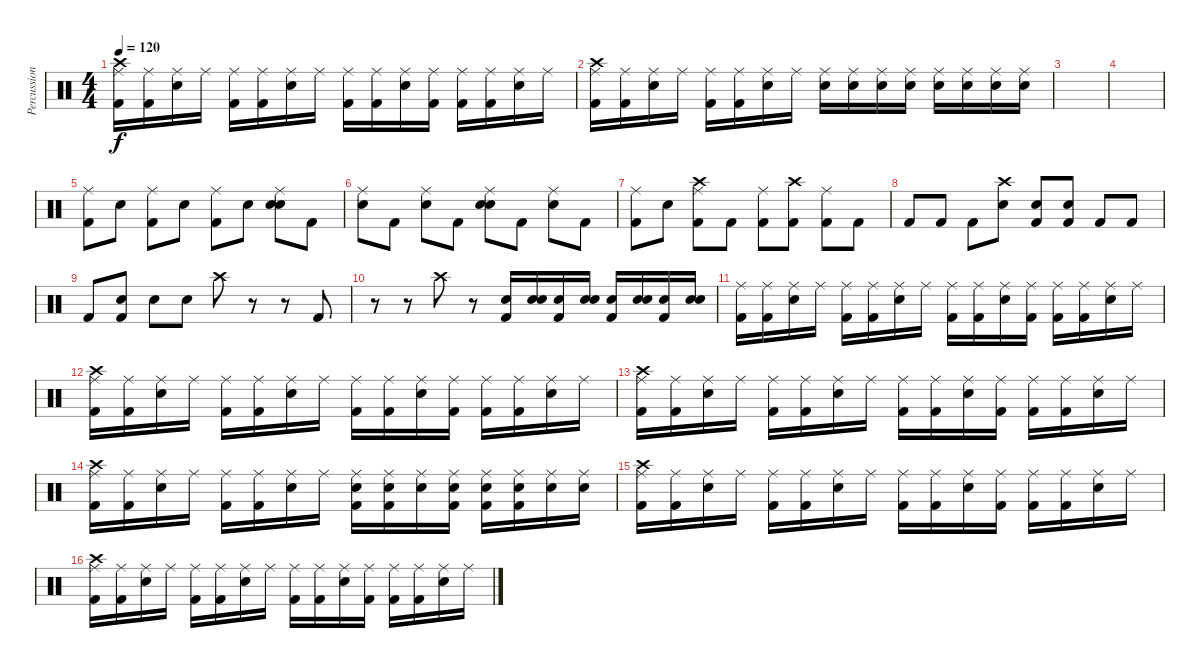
\track ("Percussions" "Percussion") {instrument percussion}
\staff {score}
\articulation defaults
\ts (4 4)
\tempo 120
\clef neutral
\ks c
("Ride (middle)" "Crash high (hit)" "Kick (hit) 2").16{dy f} ("Ride (middle)" "Kick (hit) 2").16 ("Ride (middle)" "Electric Snare (hit)").16 "Ride (middle)".16 ("Ride (middle)" "Kick (hit) 2").16 ("Ride (middle)" "Kick (hit) 2").16 ("Ride (middle)" "Electric Snare (hit)").16 "Ride (middle)".16 ("Ride (middle)" "Kick (hit) 2").16 ("Ride (middle)" "Kick (hit) 2").16 ("Ride (middle)" "Electric Snare (hit)").16 ("Ride (middle)" "Kick (hit) 2").16 ("Ride (middle)" "Kick (hit) 2").16 ("Ride (middle)" "Kick (hit) 2").16 ("Ride (middle)" "Electric Snare (hit)").16 "Ride (middle)".16 |
("Ride (middle)" "Crash high (hit)" "Kick (hit) 2").16 ("Ride (middle)" "Kick (hit) 2").16 ("Ride (middle)" "Electric Snare (hit)").16 "Ride (middle)".16 ("Ride (middle)" "Kick (hit) 2").16 ("Ride (middle)" "Kick (hit) 2").16 ("Ride (middle)" "Electric Snare (hit)").16 "Ride (middle)".16 ("Ride (middle)" "Electric Snare (hit)").16 ("Ride (middle)" "Electric Snare (hit)").16 ("Ride (middle)" "Electric Snare (hit)").16 ("Ride (middle)" "Electric Snare (hit)").16 ("Ride (middle)" "Electric Snare (hit)").16 ("Ride (middle)" "Electric Snare (hit)").16 ("Ride (middle)" "Electric Snare (hit)").16 ("Ride (middle)" "Electric Snare (hit)").16 |
|
|
("Ride (middle)" "Kick (hit) 2").8 "Electric Snare (hit)".8 ("Ride (middle)" "Kick (hit) 2").8 "Electric Snare (hit)".8 ("Ride (middle)" "Kick (hit) 2").8 "Electric Snare (hit)".8 ("Ride (middle)" "Electric Snare (hit)" "Snare (hit) 2").8 "Kick (hit) 2".8 |
("Ride (middle)" "Electric Snare (hit)").8 "Kick (hit) 2".8 ("Ride (middle)" "Electric Snare (hit)").8 "Kick (hit) 2".8 ("Ride (middle)" "Electric Snare (hit)" "Snare (hit) 2").8 "Kick (hit) 2".8 ("Ride (middle)" "Electric Snare (hit)").8 "Kick (hit) 2".8 |
("Ride (middle)" "Kick (hit) 2").8 "Snare (hit) 2".8 ("Ride (middle)" "Crash high (hit)" "Kick (hit) 2").8 "Kick (hit) 2".8 ("Ride (middle)" "Kick (hit) 2").8 ("Crash high (hit)" "Kick (hit) 2").8 ("Ride (middle)" "Kick (hit) 2").8 "Kick (hit) 2".8 |
"Kick (hit) 2".8 "Kick (hit) 2".8 "Kick (hit) 2".8 ("Crash high (hit)" "Electric Snare (hit)").8 ("Snare (hit) 2" "Kick (hit) 2").8 ("Snare (hit) 2" "Kick (hit) 2").8 "Kick (hit) 2".8 "Kick (hit) 2".8 |
"Kick (hit) 2".8 ("Snare (hit) 2" "Kick (hit) 2").8 "Electric Snare (hit)".8 "Electric Snare (hit)".8 "Crash high (hit)".8 r.8 r.8 "Kick (hit) 2".8 |
r.8 r.8 "Crash high (hit)".8 r.8 ("Kick (hit) 2" "Electric Snare (hit)").16 ("Snare (hit) 2" "Electric Snare (hit)").16 ("Kick (hit) 2" "Electric Snare (hit)").16 ("Snare (hit) 2" "Electric Snare (hit)").16 ("Kick (hit) 2" "Electric Snare (hit)").16 ("Snare (hit) 2" "Electric Snare (hit)").16 ("Kick (hit) 2" "Electric Snare (hit)").16 ("Snare (hit) 2" "Electric Snare (hit)").16 |
("Ride (middle)" "Kick (hit) 2").16 ("Ride (middle)" "Kick (hit) 2").16 ("Ride (middle)" "Electric Snare (hit)").16 "Ride (middle)".16 ("Ride (middle)" "Kick (hit) 2").16 ("Ride (middle)" "Kick (hit) 2").16 ("Ride (middle)" "Electric Snare (hit)").16 "Ride (middle)".16 ("Ride (middle)" "Kick (hit) 2").16 ("Ride (middle)" "Kick (hit) 2").16 ("Ride (middle)" "Electric Snare (hit)").16 ("Ride (middle)" "Kick (hit) 2").16 ("Ride (middle)" "Kick (hit) 2").16 ("Ride (middle)" "Kick (hit) 2").16 ("Ride (middle)" "Electric Snare (hit)").16 "Ride (middle)".16 |
("Ride (middle)" "Crash high (hit)" "Kick (hit) 2").16 ("Ride (middle)" "Kick (hit) 2").16 ("Ride (middle)" "Electric Snare (hit)").16 "Ride (middle)".16 ("Ride (middle)" "Kick (hit) 2").16 ("Ride (middle)" "Kick (hit) 2").16 ("Ride (middle)" "Electric Snare (hit)").16 "Ride (middle)".16 ("Ride (middle)" "Kick (hit) 2").16 ("Ride (middle)" "Kick (hit) 2").16 ("Ride (middle)" "Electric Snare (hit)").16 ("Ride (middle)" "Kick (hit) 2").16 ("Ride (middle)" "Kick (hit) 2").16 ("Ride (middle)" "Kick (hit) 2").16 ("Ride (middle)" "Electric Snare (hit)").16 "Ride (middle)".16 |
("Ride (middle)" "Crash high (hit)" "Kick (hit) 2").16 ("Ride (middle)" "Kick (hit) 2").16 ("Ride (middle)" "Electric Snare (hit)").16 "Ride (middle)".16 ("Ride (middle)" "Kick (hit) 2").16 ("Ride (middle)" "Kick (hit) 2").16 ("Ride (middle)" "Electric Snare (hit)").16 "Ride (middle)".16 ("Ride (middle)" "Kick (hit) 2").16 ("Ride (middle)" "Kick (hit) 2").16 ("Ride (middle)" "Electric Snare (hit)").16 ("Ride (middle)" "Kick (hit) 2").16 ("Ride (middle)" "Kick (hit) 2").16 ("Ride (middle)" "Kick (hit) 2").16 ("Ride (middle)" "Electric Snare (hit)").16 "Ride (middle)".16 |
("Ride (middle)" "Crash high (hit)" "Kick (hit) 2").16 ("Ride (middle)" "Kick (hit) 2").16 ("Ride (middle)" "Electric Snare (hit)").16 "Ride (middle)".16 ("Ride (middle)" "Kick (hit) 2").16 ("Ride (middle)" "Kick (hit) 2").16 ("Ride (middle)" "Electric Snare (hit)").16 "Ride (middle)".16 ("Ride (middle)" "Electric Snare (hit)" "Kick (hit) 2").16 ("Ride (middle)" "Electric Snare (hit)" "Kick (hit) 2").16 ("Ride (middle)" "Electric Snare (hit)").16 ("Ride (middle)" "Electric Snare (hit)" "Kick (hit) 2").16 ("Ride (middle)" "Electric Snare (hit)" "Kick (hit) 2").16 ("Ride (middle)" "Electric Snare (hit)" "Kick (hit) 2").16 ("Ride (middle)" "Electric Snare (hit)").16 ("Ride (middle)" "Electric Snare (hit)").16 |
("Ride (middle)" "Crash high (hit)" "Kick (hit) 2").16 ("Ride (middle)" "Kick (hit) 2").16 ("Ride (middle)" "Electric Snare (hit)").16 "Ride (middle)".16 ("Ride (middle)" "Kick (hit) 2").16 ("Ride (middle)" "Kick (hit) 2").16 ("Ride (middle)" "Electric Snare (hit)").16 "Ride (middle)".16 ("Ride (middle)" "Kick (hit) 2").16 ("Ride (middle)" "Kick (hit) 2").16 ("Ride (middle)" "Electric Snare (hit)").16 ("Ride (middle)" "Kick (hit) 2").16 ("Ride (middle)" "Kick (hit) 2").16 ("Ride (middle)" "Kick (hit) 2").16 ("Ride (middle)" "Electric Snare (hit)").16 "Ride (middle)".16 |
("Ride (middle)" "Crash high (hit)" "Kick (hit) 2").16 ("Ride (middle)" "Kick (hit) 2").16 ("Ride (middle)" "Electric Snare (hit)").16 "Ride (middle)".16 ("Ride (middle)" "Kick (hit) 2").16 ("Ride (middle)" "Kick (hit) 2").16 ("Ride (middle)" "Electric Snare (hit)").16 "Ride (middle)".16 ("Ride (middle)" "Kick (hit) 2").16 ("Ride (middle)" "Kick (hit) 2").16 ("Ride (middle)" "Electric Snare (hit)").16 ("Ride (middle)" "Kick (hit) 2").16 ("Ride (middle)" "Kick (hit) 2").16 ("Ride (middle)" "Kick (hit) 2").16 ("Ride (middle)" "Electric Snare (hit)").16 "Ride (middle)".16
